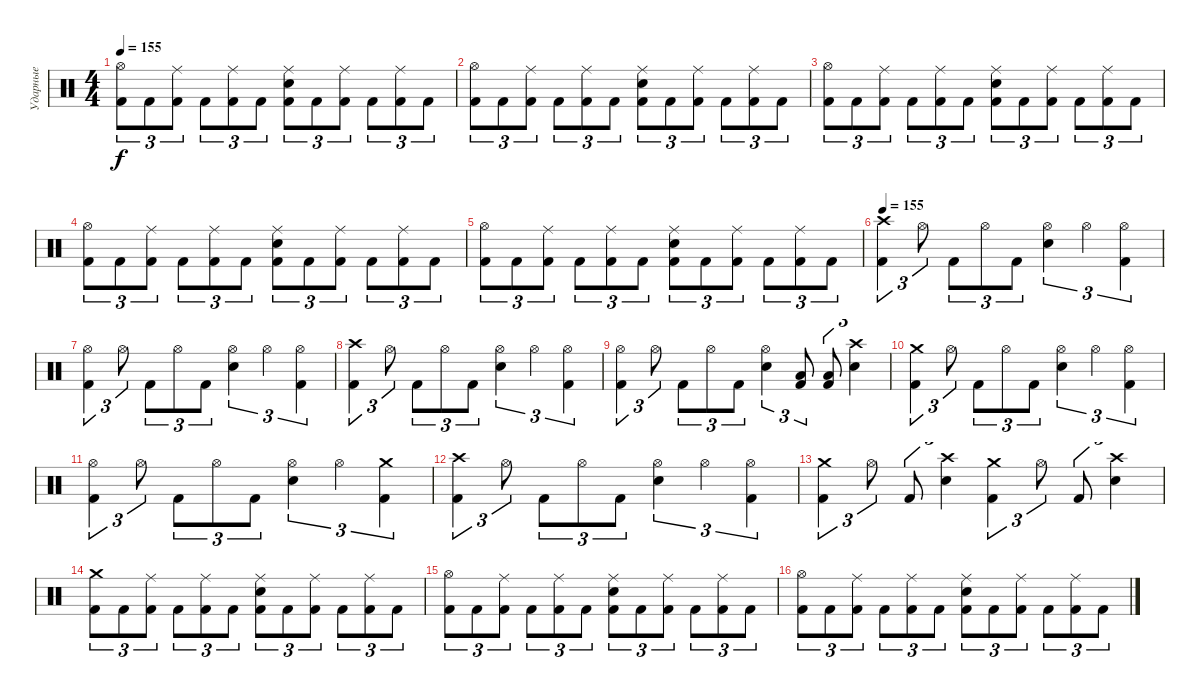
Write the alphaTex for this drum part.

\track ("Ударные" "Ударные") {instrument percussion}
\staff {score}
\articulation defaults
\ts (4 4)
\tempo 155
\clef neutral
\ks c
("Kick (hit) 2" "Hi-Hat (open)").8{tu (3 2) dy f} "Kick (hit) 2".8{tu (3 2)} ("Kick (hit) 2" "Ride (middle)").8{tu (3 2)} "Kick (hit) 2".8{tu (3 2)} ("Kick (hit) 2" "Ride (middle)").8{tu (3 2)} "Kick (hit) 2".8{tu (3 2)} ("Kick (hit) 2" "Electric Snare (hit)" "Ride (middle)").8{tu (3 2)} "Kick (hit) 2".8{tu (3 2)} ("Kick (hit) 2" "Ride (middle)").8{tu (3 2)} "Kick (hit) 2".8{tu (3 2)} ("Kick (hit) 2" "Ride (middle)").8{tu (3 2)} "Kick (hit) 2".8{tu (3 2)} |
("Kick (hit) 2" "Hi-Hat (open)").8{tu (3 2)} "Kick (hit) 2".8{tu (3 2)} ("Kick (hit) 2" "Ride (middle)").8{tu (3 2)} "Kick (hit) 2".8{tu (3 2)} ("Kick (hit) 2" "Ride (middle)").8{tu (3 2)} "Kick (hit) 2".8{tu (3 2)} ("Kick (hit) 2" "Electric Snare (hit)" "Ride (middle)").8{tu (3 2)} "Kick (hit) 2".8{tu (3 2)} ("Kick (hit) 2" "Ride (middle)").8{tu (3 2)} "Kick (hit) 2".8{tu (3 2)} ("Kick (hit) 2" "Ride (middle)").8{tu (3 2)} "Kick (hit) 2".8{tu (3 2)} |
("Kick (hit) 2" "Hi-Hat (open)").8{tu (3 2)} "Kick (hit) 2".8{tu (3 2)} ("Kick (hit) 2" "Ride (middle)").8{tu (3 2)} "Kick (hit) 2".8{tu (3 2)} ("Kick (hit) 2" "Ride (middle)").8{tu (3 2)} "Kick (hit) 2".8{tu (3 2)} ("Kick (hit) 2" "Electric Snare (hit)" "Ride (middle)").8{tu (3 2)} "Kick (hit) 2".8{tu (3 2)} ("Kick (hit) 2" "Ride (middle)").8{tu (3 2)} "Kick (hit) 2".8{tu (3 2)} ("Kick (hit) 2" "Ride (middle)").8{tu (3 2)} "Kick (hit) 2".8{tu (3 2)} |
("Kick (hit) 2" "Hi-Hat (open)").8{tu (3 2)} "Kick (hit) 2".8{tu (3 2)} ("Kick (hit) 2" "Ride (middle)").8{tu (3 2)} "Kick (hit) 2".8{tu (3 2)} ("Kick (hit) 2" "Ride (middle)").8{tu (3 2)} "Kick (hit) 2".8{tu (3 2)} ("Kick (hit) 2" "Electric Snare (hit)" "Ride (middle)").8{tu (3 2)} "Kick (hit) 2".8{tu (3 2)} ("Kick (hit) 2" "Ride (middle)").8{tu (3 2)} "Kick (hit) 2".8{tu (3 2)} ("Kick (hit) 2" "Ride (middle)").8{tu (3 2)} "Kick (hit) 2".8{tu (3 2)} |
("Kick (hit) 2" "Hi-Hat (open)").8{tu (3 2)} "Kick (hit) 2".8{tu (3 2)} ("Kick (hit) 2" "Ride (middle)").8{tu (3 2)} "Kick (hit) 2".8{tu (3 2)} ("Kick (hit) 2" "Ride (middle)").8{tu (3 2)} "Kick (hit) 2".8{tu (3 2)} ("Kick (hit) 2" "Electric Snare (hit)" "Ride (middle)").8{tu (3 2)} "Kick (hit) 2".8{tu (3 2)} ("Kick (hit) 2" "Ride (middle)").8{tu (3 2)} "Kick (hit) 2".8{tu (3 2)} ("Kick (hit) 2" "Ride (middle)").8{tu (3 2)} "Kick (hit) 2".8{tu (3 2)} |
\tempo 155
("Kick (hit) 2" "Crash high (hit)").4{tu (3 2)} "Hi-Hat (open)".8{tu (3 2)} "Kick (hit) 2".8{tu (3 2)} "Hi-Hat (open)".8{tu (3 2)} "Kick (hit) 2".8{tu (3 2)} ("Electric Snare (hit)" "Hi-Hat (open)").4{tu (3 2)} "Hi-Hat (open)".4{tu (3 2)} ("Kick (hit) 2" "Hi-Hat (open)").4{tu (3 2)} |
("Kick (hit) 2" "Hi-Hat (open)").4{tu (3 2)} "Hi-Hat (open)".8{tu (3 2)} "Kick (hit) 2".8{tu (3 2)} "Hi-Hat (open)".8{tu (3 2)} "Kick (hit) 2".8{tu (3 2)} ("Electric Snare (hit)" "Hi-Hat (open)").4{tu (3 2)} "Hi-Hat (open)".4{tu (3 2)} ("Kick (hit) 2" "Hi-Hat (open)").4{tu (3 2)} |
("Kick (hit) 2" "Crash high (hit)").4{tu (3 2)} "Hi-Hat (open)".8{tu (3 2)} "Kick (hit) 2".8{tu (3 2)} "Hi-Hat (open)".8{tu (3 2)} "Kick (hit) 2".8{tu (3 2)} ("Electric Snare (hit)" "Hi-Hat (open)").4{tu (3 2)} "Hi-Hat (open)".4{tu (3 2)} ("Kick (hit) 2" "Hi-Hat (open)").4{tu (3 2)} |
("Kick (hit) 2" "Hi-Hat (open)").4{tu (3 2)} "Hi-Hat (open)".8{tu (3 2)} "Kick (hit) 2".8{tu (3 2)} "Hi-Hat (open)".8{tu (3 2)} "Kick (hit) 2".8{tu (3 2)} ("Electric Snare (hit)" "Hi-Hat (open)").4{tu (3 2)} ("Kick (hit) 2" "Low Tom (hit)").8{tu (3 2)} ("Kick (hit) 2" "Low Tom (hit)").8{tu (3 2)} ("Electric Snare (hit)" "Crash high (hit)").4{tu (3 2)} |
("Kick (hit) 2" "Crash medium (hit)").4{tu (3 2)} "Hi-Hat (open)".8{tu (3 2)} "Kick (hit) 2".8{tu (3 2)} "Hi-Hat (open)".8{tu (3 2)} "Kick (hit) 2".8{tu (3 2)} ("Electric Snare (hit)" "Hi-Hat (open)").4{tu (3 2)} "Hi-Hat (open)".4{tu (3 2)} ("Kick (hit) 2" "Hi-Hat (open)").4{tu (3 2)} |
("Kick (hit) 2" "Hi-Hat (open)").4{tu (3 2)} "Hi-Hat (open)".8{tu (3 2)} "Kick (hit) 2".8{tu (3 2)} "Hi-Hat (open)".8{tu (3 2)} "Kick (hit) 2".8{tu (3 2)} ("Electric Snare (hit)" "Hi-Hat (open)").4{tu (3 2)} "Hi-Hat (open)".4{tu (3 2)} ("Kick (hit) 2" "Crash medium (hit)").4{tu (3 2)} |
("Kick (hit) 2" "Crash high (hit)").4{tu (3 2)} "Hi-Hat (open)".8{tu (3 2)} "Kick (hit) 2".8{tu (3 2)} "Hi-Hat (open)".8{tu (3 2)} "Kick (hit) 2".8{tu (3 2)} ("Electric Snare (hit)" "Hi-Hat (open)").4{tu (3 2)} "Hi-Hat (open)".4{tu (3 2)} ("Kick (hit) 2" "Hi-Hat (open)").4{tu (3 2)} |
("Kick (hit) 2" "Crash medium (hit)").4{tu (3 2)} "Hi-Hat (open)".8{tu (3 2)} "Kick (hit) 2".8{tu (3 2)} ("Electric Snare (hit)" "Crash high (hit)").4{tu (3 2)} ("Kick (hit) 2" "Crash medium (hit)").4{tu (3 2)} "Hi-Hat (open)".8{tu (3 2)} "Kick (hit) 2".8{tu (3 2)} ("Electric Snare (hit)" "Crash high (hit)").4{tu (3 2)} |
("Kick (hit) 2" "Crash medium (hit)").8{tu (3 2)} "Kick (hit) 2".8{tu (3 2)} ("Kick (hit) 2" "Ride (middle)").8{tu (3 2)} "Kick (hit) 2".8{tu (3 2)} ("Kick (hit) 2" "Ride (middle)").8{tu (3 2)} "Kick (hit) 2".8{tu (3 2)} ("Kick (hit) 2" "Electric Snare (hit)" "Ride (middle)").8{tu (3 2)} "Kick (hit) 2".8{tu (3 2)} ("Kick (hit) 2" "Ride (middle)").8{tu (3 2)} "Kick (hit) 2".8{tu (3 2)} ("Kick (hit) 2" "Ride (middle)").8{tu (3 2)} "Kick (hit) 2".8{tu (3 2)} |
("Kick (hit) 2" "Hi-Hat (open)").8{tu (3 2)} "Kick (hit) 2".8{tu (3 2)} ("Kick (hit) 2" "Ride (middle)").8{tu (3 2)} "Kick (hit) 2".8{tu (3 2)} ("Kick (hit) 2" "Ride (middle)").8{tu (3 2)} "Kick (hit) 2".8{tu (3 2)} ("Kick (hit) 2" "Electric Snare (hit)" "Ride (middle)").8{tu (3 2)} "Kick (hit) 2".8{tu (3 2)} ("Kick (hit) 2" "Ride (middle)").8{tu (3 2)} "Kick (hit) 2".8{tu (3 2)} ("Kick (hit) 2" "Ride (middle)").8{tu (3 2)} "Kick (hit) 2".8{tu (3 2)} |
("Kick (hit) 2" "Hi-Hat (open)").8{tu (3 2)} "Kick (hit) 2".8{tu (3 2)} ("Kick (hit) 2" "Ride (middle)").8{tu (3 2)} "Kick (hit) 2".8{tu (3 2)} ("Kick (hit) 2" "Ride (middle)").8{tu (3 2)} "Kick (hit) 2".8{tu (3 2)} ("Kick (hit) 2" "Electric Snare (hit)" "Ride (middle)").8{tu (3 2)} "Kick (hit) 2".8{tu (3 2)} ("Kick (hit) 2" "Ride (middle)").8{tu (3 2)} "Kick (hit) 2".8{tu (3 2)} ("Kick (hit) 2" "Ride (middle)").8{tu (3 2)} "Kick (hit) 2".8{tu (3 2)}
